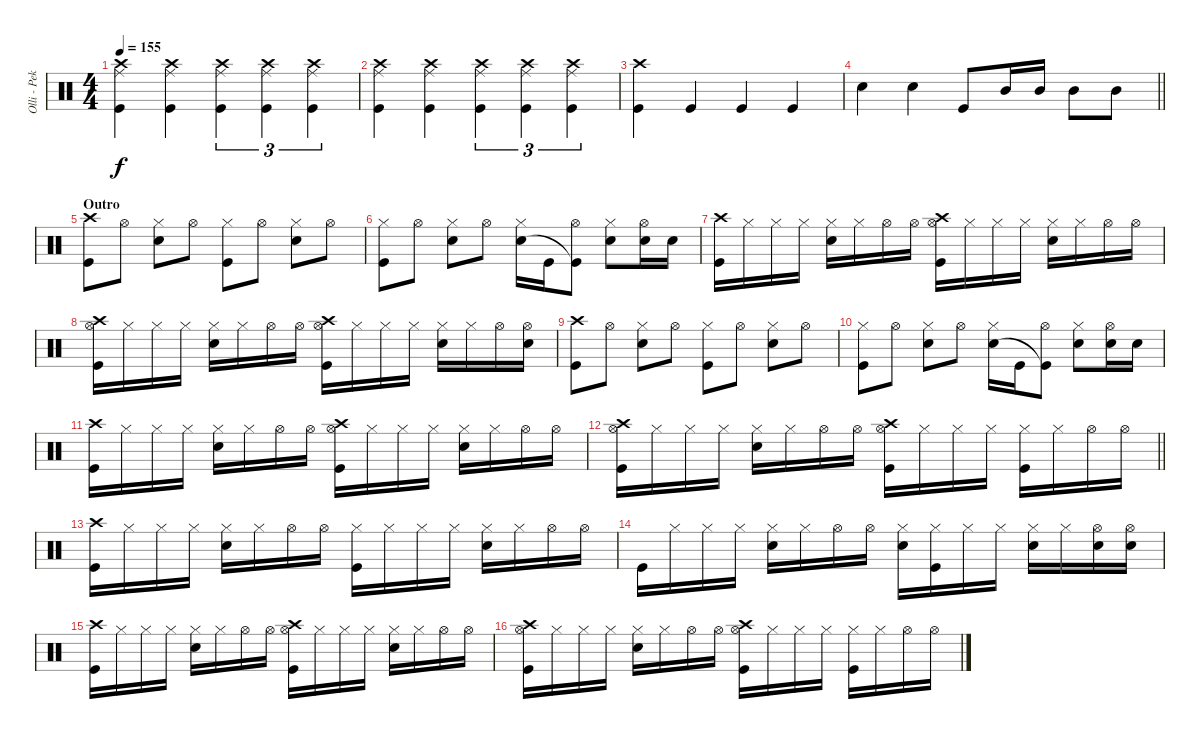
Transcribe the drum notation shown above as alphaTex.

\track ("Olli - Pekka" "Olli - Pek") {instrument percussion}
\staff {score}
\articulation defaults
\ts (4 4)
\tempo 155
\clef neutral
\ks c
("Crash high (hit)" "Ride (middle)" "Kick (hit)").4{dy f} ("Crash high (hit)" "Ride (middle)" "Kick (hit)").4 ("Crash high (hit)" "Ride (middle)" "Kick (hit)").4{tu (3 2)} ("Crash high (hit)" "Ride (middle)" "Kick (hit)").4{tu (3 2)} ("Crash high (hit)" "Ride (middle)" "Kick (hit)").4{tu (3 2)} |
("Crash high (hit)" "Ride (middle)" "Kick (hit)").4 ("Crash high (hit)" "Ride (middle)" "Kick (hit)").4 ("Crash high (hit)" "Ride (middle)" "Kick (hit)").4{tu (3 2)} ("Crash high (hit)" "Ride (middle)" "Kick (hit)").4{tu (3 2)} ("Crash high (hit)" "Ride (middle)" "Kick (hit)").4{tu (3 2)} |
("Crash high (hit)" "Kick (hit)").4 "Kick (hit)".4 "Kick (hit)".4 "Kick (hit)".4 |
\barLineRight lightlight "Snare (hit) 2".4 "Snare (hit) 2".4 "Kick (hit)".8 "Mid Tom (hit)".16 "Mid Tom (hit)".16 "Mid Tom (hit)".8 "Mid Tom (hit)".8
|
\section ("" "Outro")
("Crash high (hit)" "Kick (hit)").8{volume 13} "Hi-Hat (open)".8 ("Hi-Hat (closed)" "Snare (hit) 2").8 "Hi-Hat (open)".8 ("Hi-Hat (closed)" "Kick (hit)").8 "Hi-Hat (open)".8 ("Hi-Hat (closed)" "Snare (hit) 2").8 "Hi-Hat (open)".8 |
("Hi-Hat (closed)" "Kick (hit)").8 "Hi-Hat (open)".8 ("Hi-Hat (closed)" "Snare (hit) 2").8 "Hi-Hat (open)".8 ("Hi-Hat (closed)" "Snare (hit) 2").16 "Kick (hit)".16 ("Hi-Hat (open)" "Kick (hit)"{t}).8 ("Hi-Hat (closed)" "Snare (hit) 2").8 ("Hi-Hat (open)" "Snare (hit) 2").16 "Snare (hit) 2".16 |
("Crash high (hit)" "Kick (hit)").16 "Hi-Hat (closed)".16 "Hi-Hat (closed)".16 "Hi-Hat (closed)".16 ("Hi-Hat (closed)" "Snare (hit) 2").16 "Hi-Hat (closed)".16 "Hi-Hat (open)".16 "Hi-Hat (open)".16 ("Crash high (hit)" "Hi-Hat (open)" "Kick (hit)").16 "Hi-Hat (closed)".16 "Hi-Hat (closed)".16 "Hi-Hat (closed)".16 ("Hi-Hat (closed)" "Snare (hit) 2").16 "Hi-Hat (closed)".16 "Hi-Hat (open)".16 "Hi-Hat (open)".16 |
("Crash high (hit)" "Hi-Hat (open)" "Kick (hit)").16 "Hi-Hat (closed)".16 "Hi-Hat (closed)".16 "Hi-Hat (closed)".16 ("Hi-Hat (closed)" "Snare (hit) 2").16 "Hi-Hat (closed)".16 "Hi-Hat (open)".16 "Hi-Hat (open)".16 ("Crash high (hit)" "Hi-Hat (open)" "Kick (hit)").16 "Hi-Hat (closed)".16 "Hi-Hat (closed)".16 "Hi-Hat (closed)".16 ("Hi-Hat (closed)" "Snare (hit) 2").16 "Hi-Hat (closed)".16 "Hi-Hat (open)".16 ("Hi-Hat (open)" "Snare (hit) 2").16 |
("Crash high (hit)" "Kick (hit)").8 "Hi-Hat (open)".8 ("Hi-Hat (closed)" "Snare (hit) 2").8 "Hi-Hat (open)".8 ("Hi-Hat (closed)" "Kick (hit)").8 "Hi-Hat (open)".8 ("Hi-Hat (closed)" "Snare (hit) 2").8 "Hi-Hat (open)".8 |
("Hi-Hat (closed)" "Kick (hit)").8 "Hi-Hat (open)".8 ("Hi-Hat (closed)" "Snare (hit) 2").8 "Hi-Hat (open)".8 ("Hi-Hat (closed)" "Snare (hit) 2").16 "Kick (hit)".16 ("Hi-Hat (open)" "Kick (hit)"{t}).8 ("Hi-Hat (closed)" "Snare (hit) 2").8 ("Hi-Hat (open)" "Snare (hit) 2").16 "Snare (hit) 2".16 |
("Crash high (hit)" "Kick (hit)").16 "Hi-Hat (closed)".16 "Hi-Hat (closed)".16 "Hi-Hat (closed)".16 ("Hi-Hat (closed)" "Snare (hit) 2").16 "Hi-Hat (closed)".16 "Hi-Hat (open)".16 "Hi-Hat (open)".16 ("Crash high (hit)" "Hi-Hat (open)" "Kick (hit)").16 "Hi-Hat (closed)".16 "Hi-Hat (closed)".16 "Hi-Hat (closed)".16 ("Hi-Hat (closed)" "Snare (hit) 2").16 "Hi-Hat (closed)".16 "Hi-Hat (open)".16 "Hi-Hat (open)".16 |
\barLineRight lightlight
("Crash high (hit)" "Hi-Hat (open)" "Kick (hit)").16 "Hi-Hat (closed)".16 "Hi-Hat (closed)".16 "Hi-Hat (closed)".16 ("Hi-Hat (closed)" "Snare (hit) 2").16 "Hi-Hat (closed)".16 "Hi-Hat (open)".16 "Hi-Hat (open)".16 ("Crash high (hit)" "Hi-Hat (open)" "Kick (hit)").16 "Hi-Hat (closed)".16 "Hi-Hat (closed)".16 "Hi-Hat (closed)".16 ("Hi-Hat (closed)" "Kick (hit)").16 "Hi-Hat (closed)".16 "Hi-Hat (open)".16 "Hi-Hat (open)".16 |
("Crash high (hit)" "Kick (hit)").16 "Hi-Hat (closed)".16 "Hi-Hat (closed)".16 "Hi-Hat (closed)".16 ("Hi-Hat (closed)" "Snare (hit) 2").16 "Hi-Hat (closed)".16 "Hi-Hat (open)".16 "Hi-Hat (open)".16 ("Hi-Hat (closed)" "Kick (hit)").16 "Hi-Hat (closed)".16 "Hi-Hat (closed)".16 "Hi-Hat (closed)".16 ("Hi-Hat (closed)" "Snare (hit) 2").16 "Hi-Hat (closed)".16 "Hi-Hat (open)".16 "Hi-Hat (open)".16 |
"Kick (hit)".16 "Hi-Hat (closed)".16 "Hi-Hat (closed)".16 "Hi-Hat (closed)".16 ("Hi-Hat (closed)" "Snare (hit) 2").16 "Hi-Hat (closed)".16 "Hi-Hat (open)".16 "Hi-Hat (open)".16 ("Hi-Hat (closed)" "Snare (hit) 2").16 ("Hi-Hat (closed)" "Kick (hit)").16 "Hi-Hat (closed)".16 "Hi-Hat (closed)".16 ("Hi-Hat (closed)" "Snare (hit) 2").16 "Hi-Hat (closed)".16 ("Hi-Hat (open)" "Snare (hit) 2").16 ("Hi-Hat (open)" "Snare (hit) 2").16 |
("Crash high (hit)" "Kick (hit)").16 "Hi-Hat (closed)".16 "Hi-Hat (closed)".16 "Hi-Hat (closed)".16 ("Hi-Hat (closed)" "Snare (hit) 2").16 "Hi-Hat (closed)".16 "Hi-Hat (open)".16 "Hi-Hat (open)".16 ("Crash high (hit)" "Hi-Hat (open)" "Kick (hit)").16 "Hi-Hat (closed)".16 "Hi-Hat (closed)".16 "Hi-Hat (closed)".16 ("Hi-Hat (closed)" "Snare (hit) 2").16 "Hi-Hat (closed)".16 "Hi-Hat (open)".16 "Hi-Hat (open)".16 |
("Crash high (hit)" "Hi-Hat (open)" "Kick (hit)").16 "Hi-Hat (closed)".16 "Hi-Hat (closed)".16 "Hi-Hat (closed)".16 ("Hi-Hat (closed)" "Snare (hit) 2").16 "Hi-Hat (closed)".16 "Hi-Hat (open)".16 "Hi-Hat (open)".16 ("Crash high (hit)" "Hi-Hat (open)" "Kick (hit)").16 "Hi-Hat (closed)".16 "Hi-Hat (closed)".16 "Hi-Hat (closed)".16 ("Hi-Hat (closed)" "Kick (hit)").16 "Hi-Hat (closed)".16 "Hi-Hat (open)".16 "Hi-Hat (open)".16
